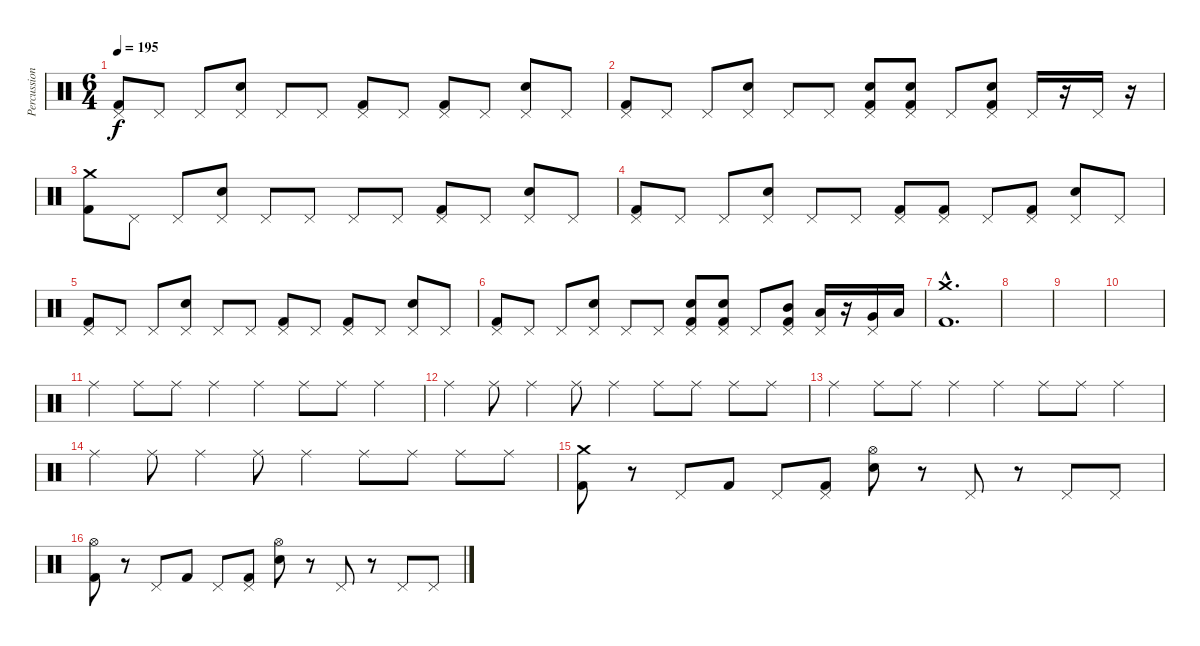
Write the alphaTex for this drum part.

\track ("Percussion" "Percussion") {instrument percussion}
\staff {score}
\articulation defaults
\ts (6 4)
\tempo 195
\clef neutral
\ks c
("Pedal Hi-Hat (hit)" "Kick (hit) 2").8{dy f} "Pedal Hi-Hat (hit)".8 "Pedal Hi-Hat (hit)".8 ("Pedal Hi-Hat (hit)" "Electric Snare (hit)").8 "Pedal Hi-Hat (hit)".8 "Pedal Hi-Hat (hit)".8 ("Pedal Hi-Hat (hit)" "Kick (hit) 2").8 "Pedal Hi-Hat (hit)".8 ("Pedal Hi-Hat (hit)" "Kick (hit) 2").8 "Pedal Hi-Hat (hit)".8 ("Pedal Hi-Hat (hit)" "Electric Snare (hit)").8 "Pedal Hi-Hat (hit)".8 |
("Pedal Hi-Hat (hit)" "Kick (hit) 2").8 "Pedal Hi-Hat (hit)".8 "Pedal Hi-Hat (hit)".8 ("Pedal Hi-Hat (hit)" "Electric Snare (hit)").8 "Pedal Hi-Hat (hit)".8 "Pedal Hi-Hat (hit)".8 ("Pedal Hi-Hat (hit)" "Electric Snare (hit)" "Kick (hit) 2").8 ("Pedal Hi-Hat (hit)" "Electric Snare (hit)" "Kick (hit) 2").8 "Pedal Hi-Hat (hit)".8 ("Pedal Hi-Hat (hit)" "Electric Snare (hit)" "Kick (hit) 2").8 "Pedal Hi-Hat (hit)".16 r.16 "Pedal Hi-Hat (hit)".16 r.16 |
("Crash medium (hit)" "Kick (hit) 2").8 "Pedal Hi-Hat (hit)".8 "Pedal Hi-Hat (hit)".8 ("Pedal Hi-Hat (hit)" "Electric Snare (hit)").8 "Pedal Hi-Hat (hit)".8 "Pedal Hi-Hat (hit)".8 "Pedal Hi-Hat (hit)".8 "Pedal Hi-Hat (hit)".8 ("Pedal Hi-Hat (hit)" "Kick (hit) 2").8 "Pedal Hi-Hat (hit)".8 ("Pedal Hi-Hat (hit)" "Electric Snare (hit)").8 "Pedal Hi-Hat (hit)".8 |
("Pedal Hi-Hat (hit)" "Kick (hit) 2").8 "Pedal Hi-Hat (hit)".8 "Pedal Hi-Hat (hit)".8 ("Pedal Hi-Hat (hit)" "Electric Snare (hit)").8 "Pedal Hi-Hat (hit)".8 "Pedal Hi-Hat (hit)".8 ("Pedal Hi-Hat (hit)" "Kick (hit) 2").8 ("Pedal Hi-Hat (hit)" "Kick (hit) 2").8 "Pedal Hi-Hat (hit)".8 ("Pedal Hi-Hat (hit)" "Kick (hit) 2").8 ("Pedal Hi-Hat (hit)" "Electric Snare (hit)").8 "Pedal Hi-Hat (hit)".8 |
("Pedal Hi-Hat (hit)" "Kick (hit) 2").8 "Pedal Hi-Hat (hit)".8 "Pedal Hi-Hat (hit)".8 ("Pedal Hi-Hat (hit)" "Electric Snare (hit)").8 "Pedal Hi-Hat (hit)".8 "Pedal Hi-Hat (hit)".8 ("Pedal Hi-Hat (hit)" "Kick (hit) 2").8 "Pedal Hi-Hat (hit)".8 ("Pedal Hi-Hat (hit)" "Kick (hit) 2").8 "Pedal Hi-Hat (hit)".8 ("Pedal Hi-Hat (hit)" "Electric Snare (hit)").8 "Pedal Hi-Hat (hit)".8 |
("Pedal Hi-Hat (hit)" "Kick (hit) 2").8 "Pedal Hi-Hat (hit)".8 "Pedal Hi-Hat (hit)".8 ("Pedal Hi-Hat (hit)" "Electric Snare (hit)").8 "Pedal Hi-Hat (hit)".8 "Pedal Hi-Hat (hit)".8 ("Pedal Hi-Hat (hit)" "Electric Snare (hit)" "Kick (hit) 2").8 ("Pedal Hi-Hat (hit)" "Electric Snare (hit)" "Kick (hit) 2").8 "Pedal Hi-Hat (hit)".8 ("Pedal Hi-Hat (hit)" "Mid Tom (hit)" "Kick (hit) 2").8 ("Pedal Hi-Hat (hit)" "Low Tom (hit)").16 r.16 ("Pedal Hi-Hat (hit)" "Very Low Tom (hit)").16 "Low Floor Tom (hit)".16 |
("Crash medium (hit)"{hac} "Kick (hit) 2"{hac}).1{d} |
|
|
|
"Ride (middle)".4 "Ride (middle)".8 "Ride (middle)".8 "Ride (middle)".4 "Ride (middle)".4 "Ride (middle)".8 "Ride (middle)".8 "Ride (middle)".4 |
"Ride (middle)".4 "Ride (middle)".8 "Ride (middle)".4 "Ride (middle)".8 "Ride (middle)".4 "Ride (middle)".8 "Ride (middle)".8 "Ride (middle)".8 "Ride (middle)".8 |
"Ride (middle)".4 "Ride (middle)".8 "Ride (middle)".8 "Ride (middle)".4 "Ride (middle)".4 "Ride (middle)".8 "Ride (middle)".8 "Ride (middle)".4 |
"Ride (middle)".4 "Ride (middle)".8 "Ride (middle)".4 "Ride (middle)".8 "Ride (middle)".4 "Ride (middle)".8 "Ride (middle)".8 "Ride (middle)".8 "Ride (middle)".8 |
("Crash medium (hit)" "Kick (hit) 2").8 r.8 "Pedal Hi-Hat (hit)".8 "Kick (hit) 2".8 "Pedal Hi-Hat (hit)".8 ("Pedal Hi-Hat (hit)" "Kick (hit) 2").8 ("Hi-Hat (open)" "Electric Snare (hit)").8 r.8 "Pedal Hi-Hat (hit)".8 r.8 "Pedal Hi-Hat (hit)".8 "Pedal Hi-Hat (hit)".8 |
("Hi-Hat (open)" "Kick (hit) 2").8 r.8 "Pedal Hi-Hat (hit)".8 "Kick (hit) 2".8 "Pedal Hi-Hat (hit)".8 ("Pedal Hi-Hat (hit)" "Kick (hit) 2").8 ("Hi-Hat (open)" "Electric Snare (hit)").8 r.8 "Pedal Hi-Hat (hit)".8 r.8 "Pedal Hi-Hat (hit)".8 "Pedal Hi-Hat (hit)".8
